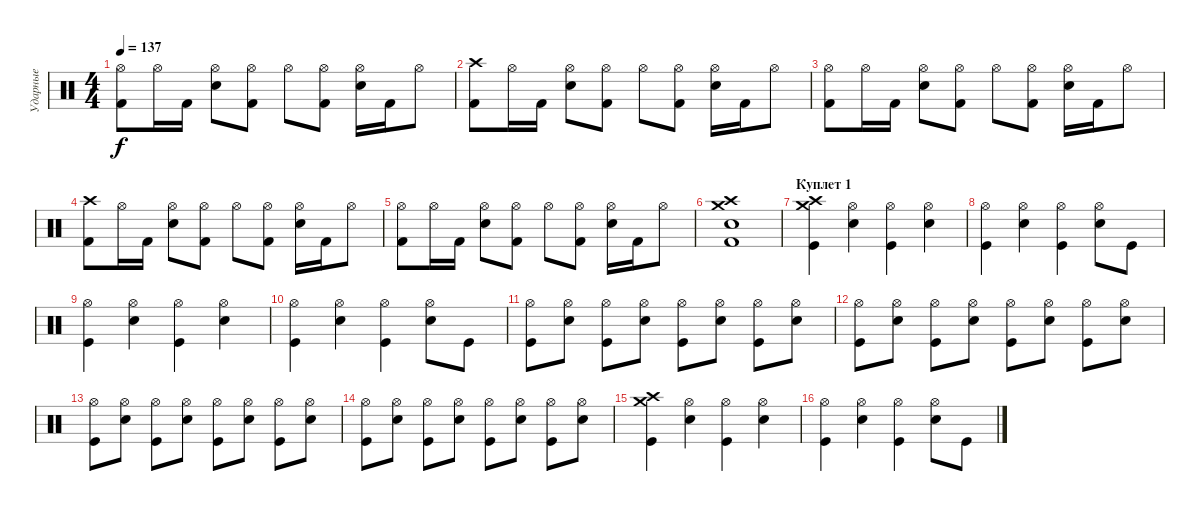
\track ("Ударные" "Ударные") {instrument percussion}
\staff {score}
\articulation defaults
\ts (4 4)
\tempo 137
\clef neutral
\ks c
("Hi-Hat (open)" "Kick (hit) 2").8{dy f} "Hi-Hat (open)".16 "Kick (hit) 2".16 ("Hi-Hat (open)" "Electric Snare (hit)").8 ("Hi-Hat (open)" "Kick (hit) 2").8 "Hi-Hat (open)".8 ("Hi-Hat (open)" "Kick (hit) 2").8 ("Hi-Hat (open)" "Electric Snare (hit)").16 "Kick (hit) 2".16 "Hi-Hat (open)".8 |
("Crash high (hit)" "Kick (hit) 2").8 "Hi-Hat (open)".16 "Kick (hit) 2".16 ("Hi-Hat (open)" "Electric Snare (hit)").8 ("Hi-Hat (open)" "Kick (hit) 2").8 "Hi-Hat (open)".8 ("Hi-Hat (open)" "Kick (hit) 2").8 ("Hi-Hat (open)" "Electric Snare (hit)").16 "Kick (hit) 2".16 "Hi-Hat (open)".8 |
("Hi-Hat (open)" "Kick (hit) 2").8 "Hi-Hat (open)".16 "Kick (hit) 2".16 ("Hi-Hat (open)" "Electric Snare (hit)").8 ("Hi-Hat (open)" "Kick (hit) 2").8 "Hi-Hat (open)".8 ("Hi-Hat (open)" "Kick (hit) 2").8 ("Hi-Hat (open)" "Electric Snare (hit)").16 "Kick (hit) 2".16 "Hi-Hat (open)".8 |
("Crash high (hit)" "Kick (hit) 2").8 "Hi-Hat (open)".16 "Kick (hit) 2".16 ("Hi-Hat (open)" "Electric Snare (hit)").8 ("Hi-Hat (open)" "Kick (hit) 2").8 "Hi-Hat (open)".8 ("Hi-Hat (open)" "Kick (hit) 2").8 ("Hi-Hat (open)" "Electric Snare (hit)").16 "Kick (hit) 2".16 "Hi-Hat (open)".8 |
("Hi-Hat (open)" "Kick (hit) 2").8 "Hi-Hat (open)".16 "Kick (hit) 2".16 ("Hi-Hat (open)" "Electric Snare (hit)").8 ("Hi-Hat (open)" "Kick (hit) 2").8 "Hi-Hat (open)".8 ("Hi-Hat (open)" "Kick (hit) 2").8 ("Hi-Hat (open)" "Electric Snare (hit)").16 "Kick (hit) 2".16 "Hi-Hat (open)".8 |
("Crash medium (hit)" "Crash high (hit)" "Electric Snare (hit)" "Kick (hit) 2").1 |
\section ("" "Куплет 1")
("Crash high (hit)" "Crash medium (hit)" "Kick (hit)").4 ("Hi-Hat (open)" "Electric Snare (hit)").4 ("Hi-Hat (open)" "Kick (hit)").4 ("Hi-Hat (open)" "Electric Snare (hit)").4 |
("Hi-Hat (open)" "Kick (hit)").4 ("Hi-Hat (open)" "Electric Snare (hit)").4 ("Hi-Hat (open)" "Kick (hit)").4 ("Hi-Hat (open)" "Electric Snare (hit)").8 "Kick (hit)".8 |
("Hi-Hat (open)" "Kick (hit)").4 ("Hi-Hat (open)" "Electric Snare (hit)").4 ("Hi-Hat (open)" "Kick (hit)").4 ("Hi-Hat (open)" "Electric Snare (hit)").4 |
("Hi-Hat (open)" "Kick (hit)").4 ("Hi-Hat (open)" "Electric Snare (hit)").4 ("Hi-Hat (open)" "Kick (hit)").4 ("Hi-Hat (open)" "Electric Snare (hit)").8 "Kick (hit)".8 |
("Hi-Hat (open)" "Kick (hit)").8 ("Hi-Hat (open)" "Snare (hit) 2").8 ("Hi-Hat (open)" "Kick (hit)").8 ("Hi-Hat (open)" "Snare (hit) 2").8 ("Hi-Hat (open)" "Kick (hit)").8 ("Hi-Hat (open)" "Snare (hit) 2").8 ("Hi-Hat (open)" "Kick (hit)").8 ("Hi-Hat (open)" "Snare (hit) 2").8 |
("Hi-Hat (open)" "Kick (hit)").8 ("Hi-Hat (open)" "Snare (hit) 2").8 ("Hi-Hat (open)" "Kick (hit)").8 ("Hi-Hat (open)" "Snare (hit) 2").8 ("Hi-Hat (open)" "Kick (hit)").8 ("Hi-Hat (open)" "Snare (hit) 2").8 ("Hi-Hat (open)" "Kick (hit)").8 ("Hi-Hat (open)" "Snare (hit) 2").8 |
("Hi-Hat (open)" "Kick (hit)").8 ("Hi-Hat (open)" "Snare (hit) 2").8 ("Hi-Hat (open)" "Kick (hit)").8 ("Hi-Hat (open)" "Snare (hit) 2").8 ("Hi-Hat (open)" "Kick (hit)").8 ("Hi-Hat (open)" "Snare (hit) 2").8 ("Hi-Hat (open)" "Kick (hit)").8 ("Hi-Hat (open)" "Snare (hit) 2").8 |
("Hi-Hat (open)" "Kick (hit)").8 ("Hi-Hat (open)" "Snare (hit) 2").8 ("Hi-Hat (open)" "Kick (hit)").8 ("Hi-Hat (open)" "Snare (hit) 2").8 ("Hi-Hat (open)" "Kick (hit)").8 ("Hi-Hat (open)" "Snare (hit) 2").8 ("Hi-Hat (open)" "Kick (hit)").8 ("Hi-Hat (open)" "Snare (hit) 2").8 |
("Crash high (hit)" "Crash medium (hit)" "Kick (hit)").4 ("Hi-Hat (open)" "Electric Snare (hit)").4 ("Hi-Hat (open)" "Kick (hit)").4 ("Hi-Hat (open)" "Electric Snare (hit)").4 |
("Hi-Hat (open)" "Kick (hit)").4 ("Hi-Hat (open)" "Electric Snare (hit)").4 ("Hi-Hat (open)" "Kick (hit)").4 ("Hi-Hat (open)" "Electric Snare (hit)").8 "Kick (hit)".8
